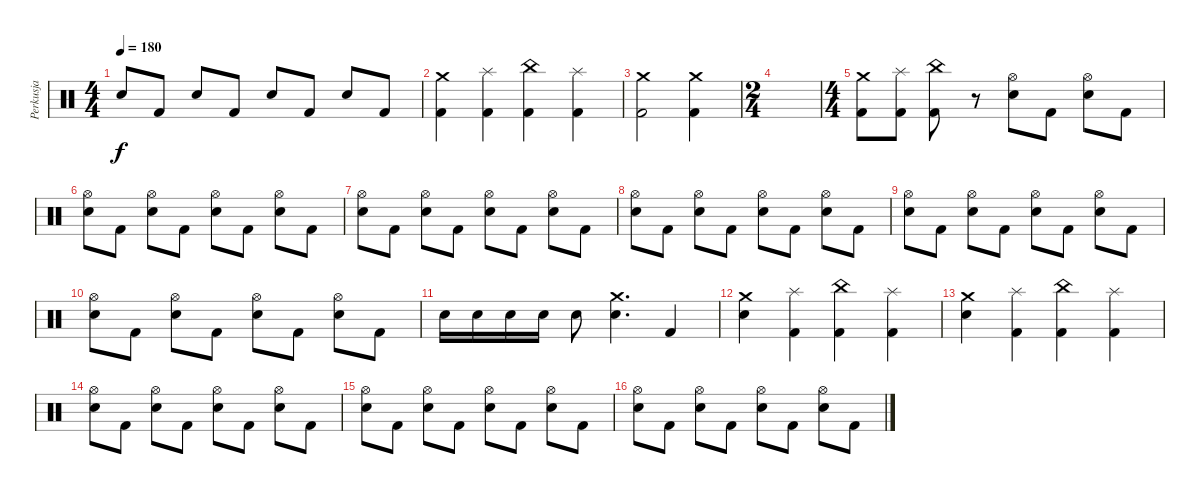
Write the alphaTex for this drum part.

\track ("Perkusja" "Perkusja") {instrument percussion}
\staff {score}
\articulation defaults
\ts (4 4)
\tempo 180
\clef neutral
\ks c "Electric Snare (hit)".8{dy f} "Kick (hit) 2".8 "Electric Snare (hit)".8 "Kick (hit) 2".8 "Electric Snare (hit)".8 "Kick (hit) 2".8 "Electric Snare (hit)".8 "Kick (hit) 2".8
|
("Crash medium (hit)" "Kick (hit) 2").4 ("Splash (hit)" "Kick (hit) 2").4 ("China (hit)" "Kick (hit) 2").4 ("Splash (hit)" "Kick (hit) 2").4 |
("Crash medium (hit)" "Kick (hit) 2").2 ("Crash medium (hit)" "Kick (hit) 2").4 |
\ts (2 4)
|
\ts (4 4)
("Crash medium (hit)" "Kick (hit) 2").8 ("Splash (hit)" "Kick (hit) 2").8 ("China (hit)" "Kick (hit) 2").8 r.8 ("Hi-Hat (open)" "Electric Snare (hit)").8 "Kick (hit) 2".8 ("Hi-Hat (open)" "Electric Snare (hit)").8 "Kick (hit) 2".8 |
("Hi-Hat (open)" "Electric Snare (hit)").8 "Kick (hit) 2".8 ("Hi-Hat (open)" "Electric Snare (hit)").8 "Kick (hit) 2".8 ("Hi-Hat (open)" "Electric Snare (hit)").8 "Kick (hit) 2".8 ("Hi-Hat (open)" "Electric Snare (hit)").8 "Kick (hit) 2".8 |
("Hi-Hat (open)" "Electric Snare (hit)").8 "Kick (hit) 2".8 ("Hi-Hat (open)" "Electric Snare (hit)").8 "Kick (hit) 2".8 ("Hi-Hat (open)" "Electric Snare (hit)").8 "Kick (hit) 2".8 ("Hi-Hat (open)" "Electric Snare (hit)").8 "Kick (hit) 2".8 |
("Hi-Hat (open)" "Electric Snare (hit)").8 "Kick (hit) 2".8 ("Hi-Hat (open)" "Electric Snare (hit)").8 "Kick (hit) 2".8 ("Hi-Hat (open)" "Electric Snare (hit)").8 "Kick (hit) 2".8 ("Hi-Hat (open)" "Electric Snare (hit)").8 "Kick (hit) 2".8 |
("Hi-Hat (open)" "Electric Snare (hit)").8 "Kick (hit) 2".8 ("Hi-Hat (open)" "Electric Snare (hit)").8 "Kick (hit) 2".8 ("Hi-Hat (open)" "Electric Snare (hit)").8 "Kick (hit) 2".8 ("Hi-Hat (open)" "Electric Snare (hit)").8 "Kick (hit) 2".8 |
("Hi-Hat (open)" "Electric Snare (hit)").8 "Kick (hit) 2".8 ("Hi-Hat (open)" "Electric Snare (hit)").8 "Kick (hit) 2".8 ("Hi-Hat (open)" "Electric Snare (hit)").8 "Kick (hit) 2".8 ("Hi-Hat (open)" "Electric Snare (hit)").8 "Kick (hit) 2".8 |
"Electric Snare (hit)".16 "Electric Snare (hit)".16 "Electric Snare (hit)".16 "Electric Snare (hit)".16 "Electric Snare (hit)".8 ("Crash medium (hit)" "Electric Snare (hit)").4{d} "Kick (hit) 2".4 |
("Crash medium (hit)" "Electric Snare (hit)").4 ("Splash (hit)" "Kick (hit) 2").4 ("China (hit)" "Kick (hit) 2").4 ("Splash (hit)" "Kick (hit) 2").4 |
("Crash medium (hit)" "Electric Snare (hit)").4 ("Splash (hit)" "Kick (hit) 2").4 ("China (hit)" "Kick (hit) 2").4 ("Splash (hit)" "Kick (hit) 2").4 |
("Hi-Hat (open)" "Electric Snare (hit)").8 "Kick (hit) 2".8 ("Hi-Hat (open)" "Electric Snare (hit)").8 "Kick (hit) 2".8 ("Hi-Hat (open)" "Electric Snare (hit)").8 "Kick (hit) 2".8 ("Hi-Hat (open)" "Electric Snare (hit)").8 "Kick (hit) 2".8 |
("Hi-Hat (open)" "Electric Snare (hit)").8 "Kick (hit) 2".8 ("Hi-Hat (open)" "Electric Snare (hit)").8 "Kick (hit) 2".8 ("Hi-Hat (open)" "Electric Snare (hit)").8 "Kick (hit) 2".8 ("Hi-Hat (open)" "Electric Snare (hit)").8 "Kick (hit) 2".8 |
("Hi-Hat (open)" "Electric Snare (hit)").8 "Kick (hit) 2".8 ("Hi-Hat (open)" "Electric Snare (hit)").8 "Kick (hit) 2".8 ("Hi-Hat (open)" "Electric Snare (hit)").8 "Kick (hit) 2".8 ("Hi-Hat (open)" "Electric Snare (hit)").8 "Kick (hit) 2".8
